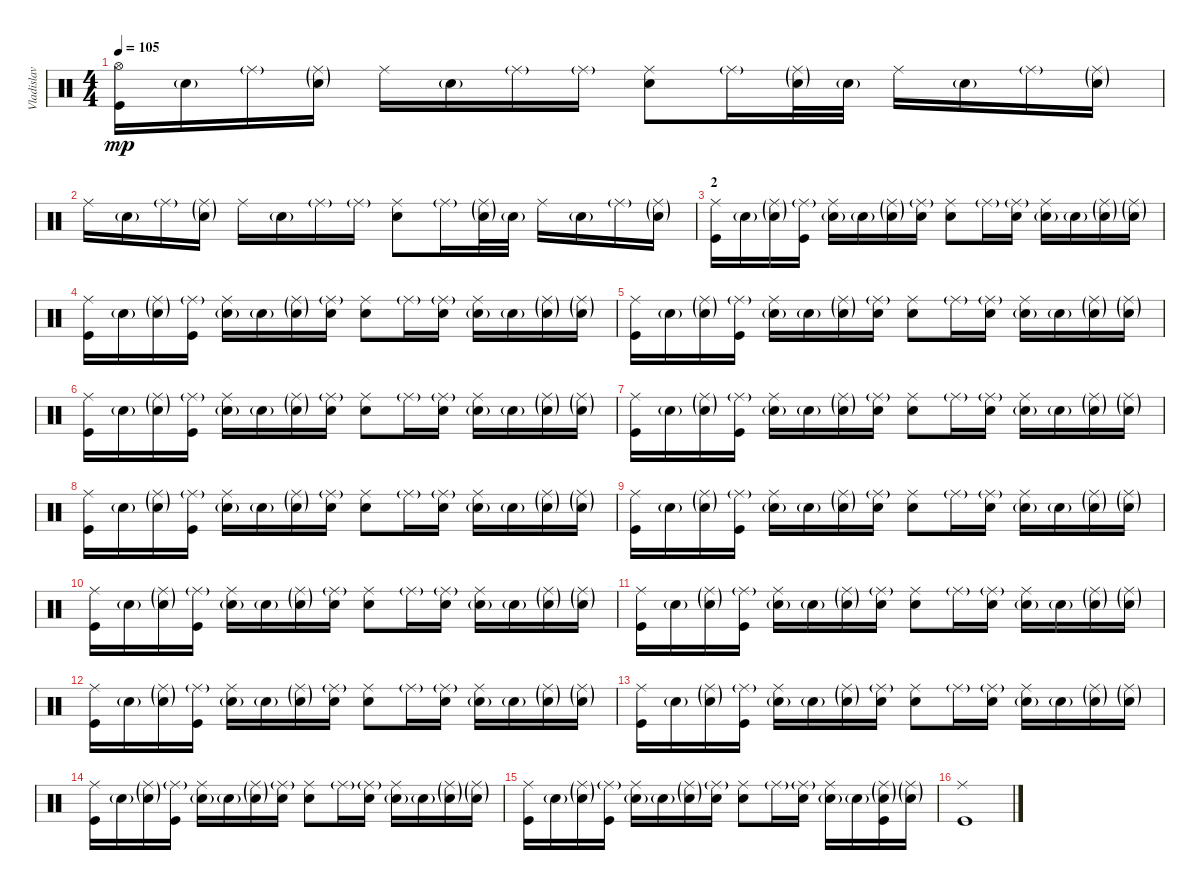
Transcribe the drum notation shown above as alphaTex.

\track ("Vladislav Ulasevish" "Vladislav ") {instrument percussion}
\staff {score}
\articulation defaults
\ts (4 4)
\tempo 105
\clef neutral
\ks c
("Kick (hit)" "Hi-Hat (open)").16{dy mp} "Snare (hit) 2"{g}.16 "Ride (middle)"{g}.16 ("Snare (hit) 2"{g} "Ride (middle)"{g}).16 "Ride (middle)".16 "Snare (hit) 2"{g}.16 "Ride (middle)"{g}.16 "Ride (middle)"{g}.16 ("Ride (middle)" "Snare (hit) 2").8 "Ride (middle)"{g}.16 ("Ride (middle)"{g} "Snare (hit) 2"{g}).32 "Snare (hit) 2"{g}.32 "Ride (middle)".16 "Snare (hit) 2"{g}.16 "Ride (middle)"{g}.16 ("Ride (middle)"{g} "Snare (hit) 2"{g}).16 |
"Ride (middle)".16 "Snare (hit) 2"{g}.16 "Ride (middle)"{g}.16 ("Ride (middle)"{g} "Snare (hit) 2"{g}).16 "Ride (middle)".16 "Snare (hit) 2"{g}.16 "Ride (middle)"{g}.16 "Ride (middle)"{g}.16 ("Ride (middle)" "Snare (hit) 2").8 "Ride (middle)"{g}.16 ("Ride (middle)"{g} "Snare (hit) 2"{g}).32 "Snare (hit) 2"{g}.32 "Ride (middle)".16 "Snare (hit) 2"{g}.16 "Ride (middle)"{g}.16 ("Ride (middle)"{g} "Snare (hit) 2"{g}).16 |
\section ("" "2")
("Kick (hit)" "Ride (middle)").16 "Snare (hit) 2"{g}.16 ("Ride (middle)"{g} "Snare (hit) 2"{g}).16 ("Ride (middle)"{g} "Kick (hit)").16 ("Ride (middle)" "Snare (hit) 2"{g}).16 "Snare (hit) 2"{g}.16 ("Ride (middle)"{g} "Snare (hit) 2"{g}).16 ("Ride (middle)"{g} "Snare (hit) 2").16 ("Snare (hit) 2" "Ride (middle)").8 "Ride (middle)"{g}.16 ("Ride (middle)"{g} "Snare (hit) 2").16 ("Ride (middle)" "Snare (hit) 2"{g}).16 "Snare (hit) 2"{g}.16 ("Ride (middle)"{g} "Snare (hit) 2"{g}).16 ("Ride (middle)"{g} "Snare (hit) 2"{g}).16 |
("Kick (hit)" "Ride (middle)").16 "Snare (hit) 2"{g}.16 ("Ride (middle)"{g} "Snare (hit) 2"{g}).16 ("Ride (middle)"{g} "Kick (hit)").16 ("Ride (middle)" "Snare (hit) 2"{g}).16 "Snare (hit) 2"{g}.16 ("Ride (middle)"{g} "Snare (hit) 2"{g}).16 ("Ride (middle)"{g} "Snare (hit) 2").16 ("Snare (hit) 2" "Ride (middle)").8 "Ride (middle)"{g}.16 ("Ride (middle)"{g} "Snare (hit) 2").16 ("Ride (middle)" "Snare (hit) 2"{g}).16 "Snare (hit) 2"{g}.16 ("Ride (middle)"{g} "Snare (hit) 2"{g}).16 ("Ride (middle)"{g} "Snare (hit) 2"{g}).16 |
("Kick (hit)" "Ride (middle)").16 "Snare (hit) 2"{g}.16 ("Ride (middle)"{g} "Snare (hit) 2"{g}).16 ("Ride (middle)"{g} "Kick (hit)").16 ("Ride (middle)" "Snare (hit) 2"{g}).16 "Snare (hit) 2"{g}.16 ("Ride (middle)"{g} "Snare (hit) 2"{g}).16 ("Ride (middle)"{g} "Snare (hit) 2").16 ("Snare (hit) 2" "Ride (middle)").8 "Ride (middle)"{g}.16 ("Ride (middle)"{g} "Snare (hit) 2").16 ("Ride (middle)" "Snare (hit) 2"{g}).16 "Snare (hit) 2"{g}.16 ("Ride (middle)"{g} "Snare (hit) 2"{g}).16 ("Ride (middle)"{g} "Snare (hit) 2"{g}).16 |
("Kick (hit)" "Ride (middle)").16 "Snare (hit) 2"{g}.16 ("Ride (middle)"{g} "Snare (hit) 2"{g}).16 ("Ride (middle)"{g} "Kick (hit)").16 ("Ride (middle)" "Snare (hit) 2"{g}).16 "Snare (hit) 2"{g}.16 ("Ride (middle)"{g} "Snare (hit) 2"{g}).16 ("Ride (middle)"{g} "Snare (hit) 2").16 ("Snare (hit) 2" "Ride (middle)").8 "Ride (middle)"{g}.16 ("Ride (middle)"{g} "Snare (hit) 2").16 ("Ride (middle)" "Snare (hit) 2"{g}).16 "Snare (hit) 2"{g}.16 ("Ride (middle)"{g} "Snare (hit) 2"{g}).16 ("Ride (middle)"{g} "Snare (hit) 2"{g}).16 |
("Kick (hit)" "Ride (middle)").16 "Snare (hit) 2"{g}.16 ("Ride (middle)"{g} "Snare (hit) 2"{g}).16 ("Ride (middle)"{g} "Kick (hit)").16 ("Ride (middle)" "Snare (hit) 2"{g}).16 "Snare (hit) 2"{g}.16 ("Ride (middle)"{g} "Snare (hit) 2"{g}).16 ("Ride (middle)"{g} "Snare (hit) 2").16 ("Snare (hit) 2" "Ride (middle)").8 "Ride (middle)"{g}.16 ("Ride (middle)"{g} "Snare (hit) 2").16 ("Ride (middle)" "Snare (hit) 2"{g}).16 "Snare (hit) 2"{g}.16 ("Ride (middle)"{g} "Snare (hit) 2"{g}).16 ("Ride (middle)"{g} "Snare (hit) 2"{g}).16 |
("Kick (hit)" "Ride (middle)").16 "Snare (hit) 2"{g}.16 ("Ride (middle)"{g} "Snare (hit) 2"{g}).16 ("Ride (middle)"{g} "Kick (hit)").16 ("Ride (middle)" "Snare (hit) 2"{g}).16 "Snare (hit) 2"{g}.16 ("Ride (middle)"{g} "Snare (hit) 2"{g}).16 ("Ride (middle)"{g} "Snare (hit) 2").16 ("Snare (hit) 2" "Ride (middle)").8 "Ride (middle)"{g}.16 ("Ride (middle)"{g} "Snare (hit) 2").16 ("Ride (middle)" "Snare (hit) 2"{g}).16 "Snare (hit) 2"{g}.16 ("Ride (middle)"{g} "Snare (hit) 2"{g}).16 ("Ride (middle)"{g} "Snare (hit) 2"{g}).16 |
("Kick (hit)" "Ride (middle)").16 "Snare (hit) 2"{g}.16 ("Ride (middle)"{g} "Snare (hit) 2"{g}).16 ("Ride (middle)"{g} "Kick (hit)").16 ("Ride (middle)" "Snare (hit) 2"{g}).16 "Snare (hit) 2"{g}.16 ("Ride (middle)"{g} "Snare (hit) 2"{g}).16 ("Ride (middle)"{g} "Snare (hit) 2").16 ("Snare (hit) 2" "Ride (middle)").8 "Ride (middle)"{g}.16 ("Ride (middle)"{g} "Snare (hit) 2").16 ("Ride (middle)" "Snare (hit) 2"{g}).16 "Snare (hit) 2"{g}.16 ("Ride (middle)"{g} "Snare (hit) 2"{g}).16 ("Ride (middle)"{g} "Snare (hit) 2"{g}).16 |
("Kick (hit)" "Ride (middle)").16 "Snare (hit) 2"{g}.16 ("Ride (middle)"{g} "Snare (hit) 2"{g}).16 ("Ride (middle)"{g} "Kick (hit)").16 ("Ride (middle)" "Snare (hit) 2"{g}).16 "Snare (hit) 2"{g}.16 ("Ride (middle)"{g} "Snare (hit) 2"{g}).16 ("Ride (middle)"{g} "Snare (hit) 2").16 ("Snare (hit) 2" "Ride (middle)").8 "Ride (middle)"{g}.16 ("Ride (middle)"{g} "Snare (hit) 2").16 ("Ride (middle)" "Snare (hit) 2"{g}).16 "Snare (hit) 2"{g}.16 ("Ride (middle)"{g} "Snare (hit) 2"{g}).16 ("Ride (middle)"{g} "Snare (hit) 2"{g}).16 |
("Kick (hit)" "Ride (middle)").16 "Snare (hit) 2"{g}.16 ("Ride (middle)"{g} "Snare (hit) 2"{g}).16 ("Ride (middle)"{g} "Kick (hit)").16 ("Ride (middle)" "Snare (hit) 2"{g}).16 "Snare (hit) 2"{g}.16 ("Ride (middle)"{g} "Snare (hit) 2"{g}).16 ("Ride (middle)"{g} "Snare (hit) 2").16 ("Snare (hit) 2" "Ride (middle)").8 "Ride (middle)"{g}.16 ("Ride (middle)"{g} "Snare (hit) 2").16 ("Ride (middle)" "Snare (hit) 2"{g}).16 "Snare (hit) 2"{g}.16 ("Ride (middle)"{g} "Snare (hit) 2"{g}).16 ("Ride (middle)"{g} "Snare (hit) 2"{g}).16 |
("Kick (hit)" "Ride (middle)").16 "Snare (hit) 2"{g}.16 ("Ride (middle)"{g} "Snare (hit) 2"{g}).16 ("Ride (middle)"{g} "Kick (hit)").16 ("Ride (middle)" "Snare (hit) 2"{g}).16 "Snare (hit) 2"{g}.16 ("Ride (middle)"{g} "Snare (hit) 2"{g}).16 ("Ride (middle)"{g} "Snare (hit) 2").16 ("Snare (hit) 2" "Ride (middle)").8 "Ride (middle)"{g}.16 ("Ride (middle)"{g} "Snare (hit) 2").16 ("Ride (middle)" "Snare (hit) 2"{g}).16 "Snare (hit) 2"{g}.16 ("Ride (middle)"{g} "Snare (hit) 2"{g}).16 ("Ride (middle)"{g} "Snare (hit) 2"{g}).16 |
("Kick (hit)" "Ride (middle)").16 "Snare (hit) 2"{g}.16 ("Ride (middle)"{g} "Snare (hit) 2"{g}).16 ("Ride (middle)"{g} "Kick (hit)").16 ("Ride (middle)" "Snare (hit) 2"{g}).16 "Snare (hit) 2"{g}.16 ("Ride (middle)"{g} "Snare (hit) 2"{g}).16 ("Ride (middle)"{g} "Snare (hit) 2").16 ("Snare (hit) 2" "Ride (middle)").8 "Ride (middle)"{g}.16 ("Ride (middle)"{g} "Snare (hit) 2").16 ("Ride (middle)" "Snare (hit) 2"{g}).16 "Snare (hit) 2"{g}.16 ("Ride (middle)"{g} "Snare (hit) 2"{g}).16 ("Ride (middle)"{g} "Snare (hit) 2"{g}).16 |
("Kick (hit)" "Ride (middle)").16 "Snare (hit) 2"{g}.16 ("Ride (middle)"{g} "Snare (hit) 2"{g}).16 ("Ride (middle)"{g} "Kick (hit)").16 ("Ride (middle)" "Snare (hit) 2"{g}).16 "Snare (hit) 2"{g}.16 ("Ride (middle)"{g} "Snare (hit) 2"{g}).16 ("Ride (middle)"{g} "Snare (hit) 2").16 ("Snare (hit) 2" "Ride (middle)").8 "Ride (middle)"{g}.16 ("Ride (middle)"{g} "Snare (hit) 2").16 ("Ride (middle)" "Snare (hit) 2"{g}).16 "Snare (hit) 2"{g}.16 ("Ride (middle)"{g} "Snare (hit) 2"{g}).16 ("Ride (middle)"{g} "Snare (hit) 2"{g}).16 |
("Kick (hit)" "Ride (middle)").16 "Snare (hit) 2"{g}.16 ("Ride (middle)"{g} "Snare (hit) 2"{g}).16 ("Ride (middle)"{g} "Kick (hit)").16 ("Ride (middle)" "Snare (hit) 2"{g}).16 "Snare (hit) 2"{g}.16 ("Ride (middle)"{g} "Snare (hit) 2"{g}).16 ("Ride (middle)"{g} "Snare (hit) 2").16 ("Snare (hit) 2" "Ride (middle)").8 "Ride (middle)"{g}.16 ("Ride (middle)"{g} "Snare (hit) 2").16 ("Ride (middle)" "Snare (hit) 2"{g}).16 "Snare (hit) 2"{g}.16 ("Ride (middle)"{g} "Snare (hit) 2"{g} "Kick (hit)").16 ("Ride (middle)"{g} "Snare (hit) 2"{g}).16 |
("Kick (hit)" "Ride (middle)").1
